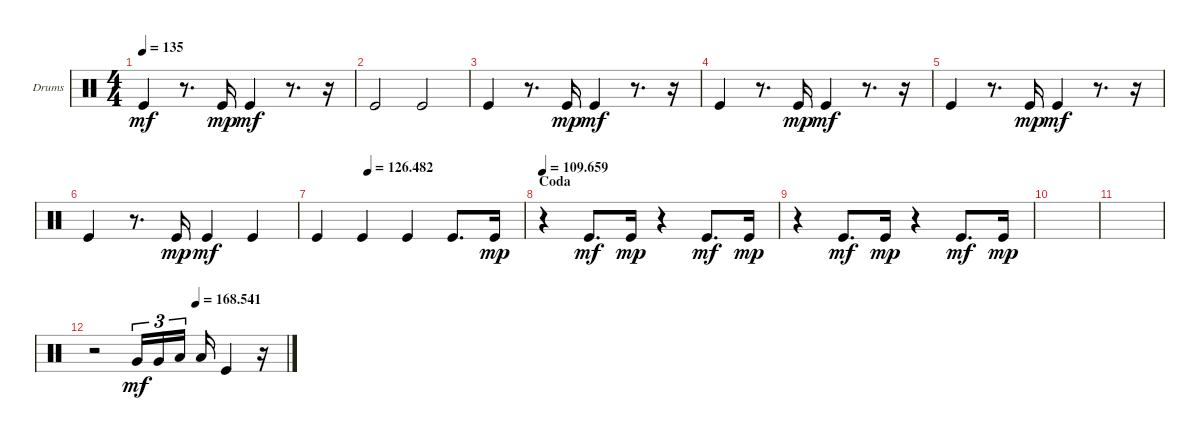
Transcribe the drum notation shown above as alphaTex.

\bracketExtendMode groupsimilarinstruments
\firstSystemTrackNameOrientation horizontal
\otherSystemsTrackNameOrientation horizontal
\track ("Kick" "Drums") {instrument percussion}
\staff {score}
\articulation defaults
\ts (4 4)
\tempo 135
\clef neutral
\ks c "Kick (hit)".4{dy mf}
r.8{d} "Kick (hit)".16{dy mp} "Kick (hit)".4{dy mf} r.8{d} r.16 |
"Kick (hit)".2 "Kick (hit)".2 |
"Kick (hit)".4 r.8{d} "Kick (hit)".16{dy mp} "Kick (hit)".4{dy mf} r.8{d} r.16 |
"Kick (hit)".4 r.8{d} "Kick (hit)".16{dy mp} "Kick (hit)".4{dy mf} r.8{d} r.16 |
"Kick (hit)".4 r.8{d} "Kick (hit)".16{dy mp} "Kick (hit)".4{dy mf} r.8{d} r.16 |
"Kick (hit)".4 r.8{d} "Kick (hit)".16{dy mp} "Kick (hit)".4{dy mf} "Kick (hit)".4 |
\tempo (126.482 0.25)
"Kick (hit)".4 "Kick (hit)".4 "Kick (hit)".4 "Kick (hit)".8{d} "Kick (hit)".16{dy mp} |
\section ("" "Coda")
\tempo
109.659 r.4 "Kick (hit)".8{d dy mf} "Kick (hit)".16{dy mp} r.4 "Kick (hit)".8{d dy mf} "Kick (hit)".16{dy mp} |
r.4 "Kick (hit)".8{d dy mf} "Kick (hit)".16{dy mp} r.4 "Kick (hit)".8{d dy mf} "Kick (hit)".16{dy mp} |
|
|
\tempo (168.541 0.53125)
r.2 "Very Low Tom (hit)".16{tu (3 2) dy mf} "Very Low Tom (hit)".16{tu (3 2)} "Low Tom (hit)".16{tu (3 2)} "Low Tom (hit)".16 "Kick (hit)".4 r.16
